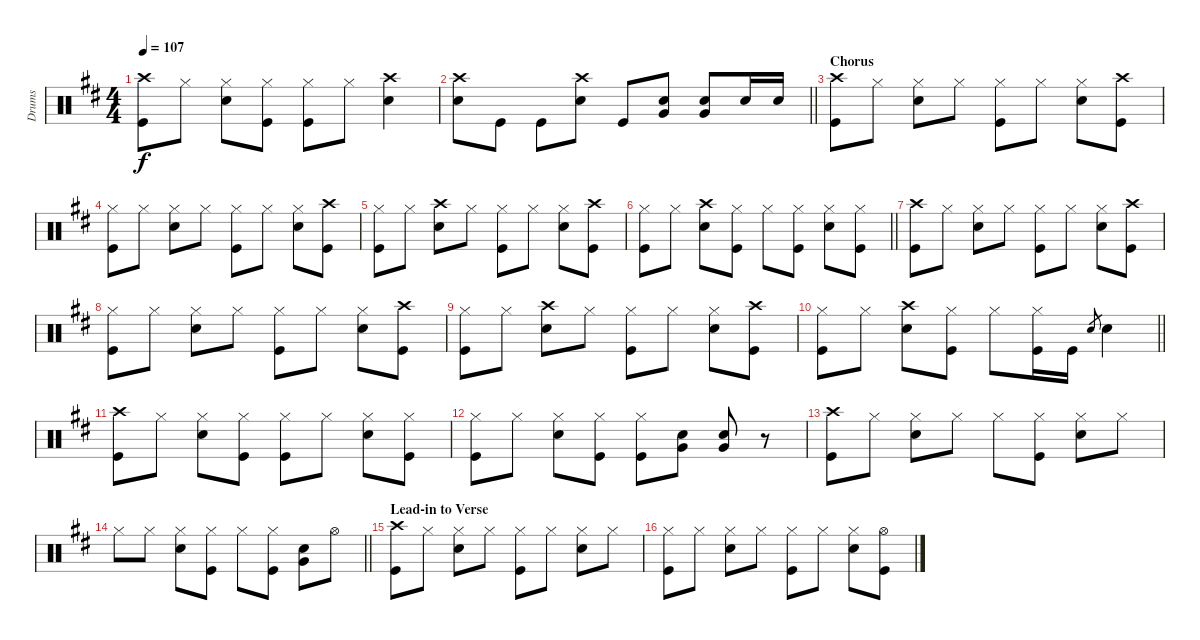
\track ("Drums" "Drums") {instrument percussion}
\staff {score}
\articulation defaults
\ts (4 4)
\tempo 107
\clef neutral
\ks d
("Crash high (hit)" "Kick (hit)").8{dy f} "Hi-Hat (closed)".8 ("Hi-Hat (closed)" "Snare (hit) 2").8 ("Hi-Hat (closed)" "Kick (hit)").8 ("Hi-Hat (closed)" "Kick (hit)").8 "Hi-Hat (closed)".8 ("Crash high (hit)" "Snare (hit) 2").4 |
\barLineRight lightlight
("Crash high (hit)" "Snare (hit) 2").8 "Kick (hit)".8 "Kick (hit)".8 ("Crash high (hit)" "Snare (hit) 2").8 "Kick (hit)".8 ("Snare (hit) 2" "Very Low Tom (hit)").8 ("Snare (hit) 2" "Very Low Tom (hit)").8 "Snare (hit) 2".16 "Snare (hit) 2".16 |
\section ("" "Chorus")
("Crash high (hit)" "Kick (hit)").8 "Hi-Hat (closed)".8 ("Hi-Hat (closed)" "Snare (hit) 2").8 "Hi-Hat (closed)".8 ("Hi-Hat (closed)" "Kick (hit)").8 "Hi-Hat (closed)".8 ("Hi-Hat (closed)" "Snare (hit) 2").8 ("Crash high (hit)" "Kick (hit)").8 |
("Hi-Hat (closed)" "Kick (hit)").8 "Hi-Hat (closed)".8 ("Hi-Hat (closed)" "Snare (hit) 2").8 "Hi-Hat (closed)".8 ("Hi-Hat (closed)" "Kick (hit)").8 "Hi-Hat (closed)".8 ("Hi-Hat (closed)" "Snare (hit) 2").8 ("Crash high (hit)" "Kick (hit)").8 |
("Hi-Hat (closed)" "Kick (hit)").8 "Hi-Hat (closed)".8 ("Crash high (hit)" "Snare (hit) 2").8 "Hi-Hat (closed)".8 ("Hi-Hat (closed)" "Kick (hit)").8 "Hi-Hat (closed)".8 ("Hi-Hat (closed)" "Snare (hit) 2").8 ("Crash high (hit)" "Kick (hit)").8 |
\barLineRight lightlight
("Hi-Hat (closed)" "Kick (hit)").8 "Hi-Hat (closed)".8 ("Crash high (hit)" "Snare (hit) 2").8 ("Hi-Hat (closed)" "Kick (hit)").8 "Hi-Hat (closed)".8 ("Hi-Hat (closed)" "Kick (hit)").8 ("Hi-Hat (closed)" "Snare (hit) 2").8 ("Hi-Hat (closed)" "Kick (hit)").8 |
("Crash high (hit)" "Kick (hit)").8 "Hi-Hat (closed)".8 ("Hi-Hat (closed)" "Snare (hit) 2").8 "Hi-Hat (closed)".8 ("Hi-Hat (closed)" "Kick (hit)").8 "Hi-Hat (closed)".8 ("Hi-Hat (closed)" "Snare (hit) 2").8 ("Crash high (hit)" "Kick (hit)").8 |
("Hi-Hat (closed)" "Kick (hit)").8 "Hi-Hat (closed)".8 ("Hi-Hat (closed)" "Snare (hit) 2").8 "Hi-Hat (closed)".8 ("Hi-Hat (closed)" "Kick (hit)").8 "Hi-Hat (closed)".8 ("Hi-Hat (closed)" "Snare (hit) 2").8 ("Crash high (hit)" "Kick (hit)").8 |
("Hi-Hat (closed)" "Kick (hit)").8 "Hi-Hat (closed)".8 ("Crash high (hit)" "Snare (hit) 2").8 "Hi-Hat (closed)".8 ("Hi-Hat (closed)" "Kick (hit)").8 "Hi-Hat (closed)".8 ("Hi-Hat (closed)" "Snare (hit) 2").8 ("Crash high (hit)" "Kick (hit)").8 |
\barLineRight lightlight
("Hi-Hat (closed)" "Kick (hit)").8 "Hi-Hat (closed)".8 ("Crash high (hit)" "Snare (hit) 2").8 ("Hi-Hat (closed)" "Kick (hit)").8 "Hi-Hat (closed)".8 ("Hi-Hat (closed)" "Kick (hit)").16 "Kick (hit)".16 "Snare (hit) 2".8{gr} "Snare (hit) 2".4 |
("Crash high (hit)" "Kick (hit)").8 "Hi-Hat (closed)".8 ("Hi-Hat (closed)" "Snare (hit) 2").8 ("Hi-Hat (closed)" "Kick (hit)").8 ("Hi-Hat (closed)" "Kick (hit)").8 "Hi-Hat (closed)".8 ("Hi-Hat (closed)" "Snare (hit) 2").8 ("Hi-Hat (closed)" "Kick (hit)").8 |
("Hi-Hat (closed)" "Kick (hit)").8 "Hi-Hat (closed)".8 ("Hi-Hat (closed)" "Snare (hit) 2").8 ("Hi-Hat (closed)" "Kick (hit)").8 ("Hi-Hat (closed)" "Kick (hit)").8 ("Snare (hit) 2" "Very Low Tom (hit)").8 ("Snare (hit) 2" "Very Low Tom (hit)").8 r.8 |
("Crash high (hit)" "Kick (hit)").8 "Hi-Hat (closed)".8 ("Hi-Hat (closed)" "Snare (hit) 2").8 "Hi-Hat (closed)".8 "Hi-Hat (closed)".8 ("Hi-Hat (closed)" "Kick (hit)").8 ("Hi-Hat (closed)" "Snare (hit) 2").8 "Hi-Hat (closed)".8 |
\barLineRight lightlight "Hi-Hat (closed)".8 "Hi-Hat (closed)".8
("Hi-Hat (closed)" "Snare (hit) 2").8 ("Hi-Hat (closed)" "Kick (hit)").8 "Hi-Hat (closed)".8 ("Hi-Hat (closed)" "Kick (hit)").8 ("Snare (hit) 2" "Very Low Tom (hit)").8 "Hi-Hat (open)".8 |
\section ("" "Lead-in to Verse")
("Crash high (hit)" "Kick (hit)").8 "Hi-Hat (closed)".8 ("Hi-Hat (closed)" "Snare (hit) 2").8 "Hi-Hat (closed)".8 ("Hi-Hat (closed)" "Kick (hit)").8 "Hi-Hat (closed)".8 ("Hi-Hat (closed)" "Snare (hit) 2").8 "Hi-Hat (closed)".8 |
("Hi-Hat (closed)" "Kick (hit)").8 "Hi-Hat (closed)".8 ("Hi-Hat (closed)" "Snare (hit) 2").8 "Hi-Hat (closed)".8 ("Hi-Hat (closed)" "Kick (hit)").8 "Hi-Hat (closed)".8 ("Hi-Hat (closed)" "Snare (hit) 2").8 ("Hi-Hat (open)" "Kick (hit)").8
